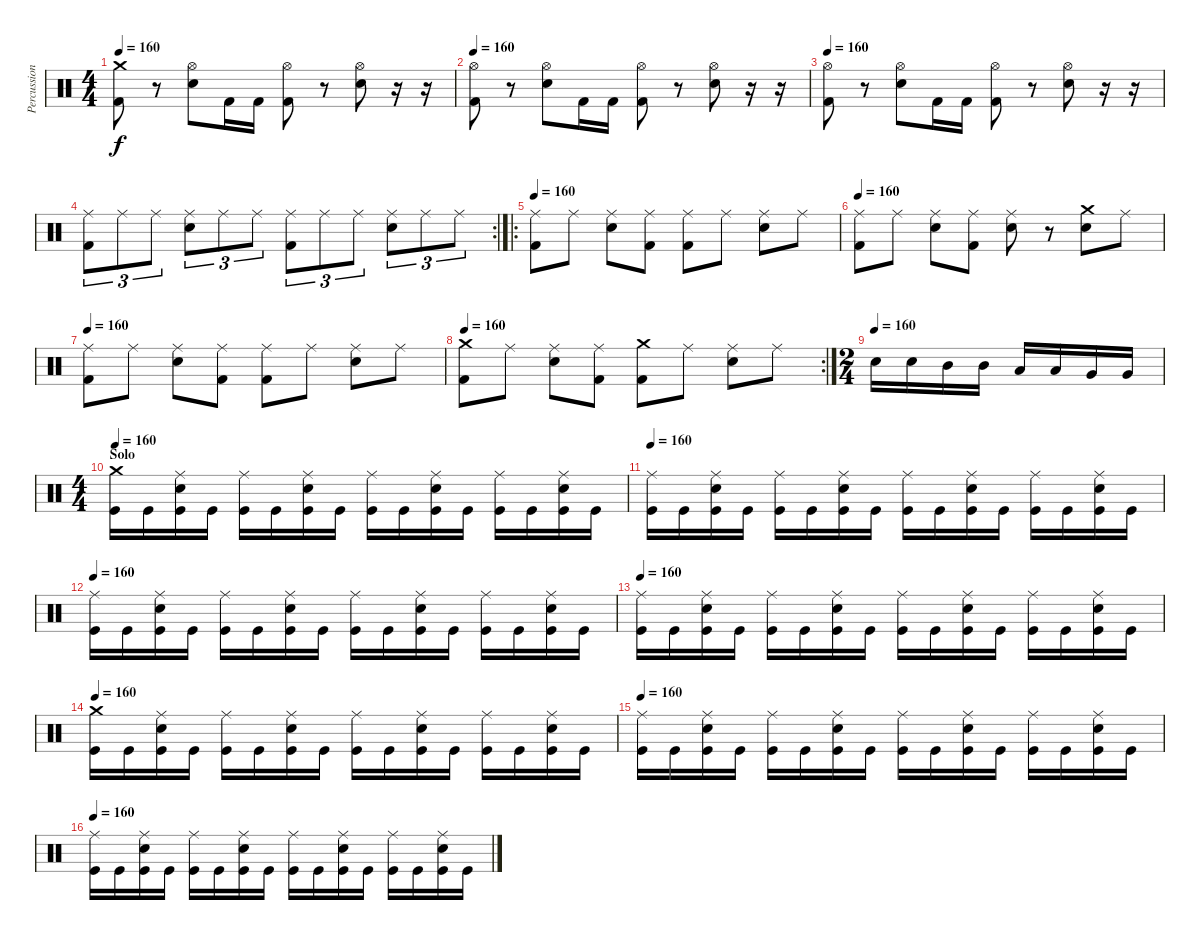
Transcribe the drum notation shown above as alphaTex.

\track ("Percussions" "Percussion") {instrument percussion}
\staff {score}
\articulation defaults
\ts (4 4)
\tempo 160
\clef neutral
\ks c
("Kick (hit) 2" "Crash medium (hit)").8{dy f} r.8 ("Electric Snare (hit)" "Hi-Hat (open)").8 "Kick (hit) 2".16 "Kick (hit) 2".16 ("Kick (hit) 2" "Hi-Hat (open)").8 r.8 ("Electric Snare (hit)" "Hi-Hat (open)").8 r.16 r.16 |
\tempo 160
("Kick (hit) 2" "Hi-Hat (open)").8 r.8 ("Electric Snare (hit)" "Hi-Hat (open)").8 "Kick (hit) 2".16 "Kick (hit) 2".16 ("Kick (hit) 2" "Hi-Hat (open)").8 r.8 ("Electric Snare (hit)" "Hi-Hat (open)").8 r.16 r.16 |
\tempo 160
("Kick (hit) 2" "Hi-Hat (open)").8 r.8 ("Electric Snare (hit)" "Hi-Hat (open)").8 "Kick (hit) 2".16 "Kick (hit) 2".16 ("Kick (hit) 2" "Hi-Hat (open)").8 r.8 ("Electric Snare (hit)" "Hi-Hat (open)").8 r.16 r.16 |
\rc 2
("Kick (hit) 2" "Ride (middle)").8{tu (3 2)} "Ride (middle)".8{tu (3 2)} "Ride (middle)".8{tu (3 2)} ("Electric Snare (hit)" "Ride (middle)").8{tu (3 2)} "Ride (middle)".8{tu (3 2)} "Ride (middle)".8{tu (3 2)} ("Kick (hit) 2" "Ride (middle)").8{tu (3 2)} "Ride (middle)".8{tu (3 2)} "Ride (middle)".8{tu (3 2)} ("Electric Snare (hit)" "Ride (middle)").8{tu (3 2)} "Ride (middle)".8{tu (3 2)} "Ride (middle)".8{tu (3 2)} |
\ro
\tempo 160
("Ride (middle)" "Kick (hit) 2").8 "Ride (middle)".8 ("Ride (middle)" "Electric Snare (hit)").8 ("Ride (middle)" "Kick (hit) 2").8 ("Ride (middle)" "Kick (hit) 2").8 "Ride (middle)".8 ("Ride (middle)" "Electric Snare (hit)").8 "Ride (middle)".8 |
\tempo 160
("Ride (middle)" "Kick (hit) 2").8 "Ride (middle)".8 ("Ride (middle)" "Electric Snare (hit)").8 ("Ride (middle)" "Kick (hit) 2").8 ("Ride (middle)" "Electric Snare (hit)").8 r.8 ("Crash medium (hit)" "Electric Snare (hit)").8 "Ride (middle)".8 |
\tempo 160
("Ride (middle)" "Kick (hit) 2").8 "Ride (middle)".8 ("Ride (middle)" "Electric Snare (hit)").8 ("Ride (middle)" "Kick (hit) 2").8 ("Ride (middle)" "Kick (hit) 2").8 "Ride (middle)".8 ("Ride (middle)" "Electric Snare (hit)").8 "Ride (middle)".8 |
\rc 2
\tempo 160
("Crash medium (hit)" "Kick (hit) 2").8 "Ride (middle)".8 ("Ride (middle)" "Electric Snare (hit)").8 ("Ride (middle)" "Kick (hit) 2").8 ("Crash medium (hit)" "Kick (hit) 2").8 "Ride (middle)".8 ("Ride (middle)" "Electric Snare (hit)").8 "Ride (middle)".8 |
\ts (2 4)
\tempo (160)
"Snare (hit) 2".16 "Snare (hit) 2".16 "Mid Tom (hit)".16 "Mid Tom (hit)".16 "Low Tom (hit)".16 "Low Tom (hit)".16 "Very Low Tom (hit)".16 "Very Low Tom (hit)".16 |
\ts (4 4)
\section ("" "Solo")
\tempo 160
("Kick (hit)" "Crash medium (hit)").16 "Kick (hit)".16 ("Kick (hit)" "Ride (middle)" "Snare (hit) 2").16 "Kick (hit)".16 ("Kick (hit)" "Ride (middle)").16 "Kick (hit)".16 ("Kick (hit)" "Ride (middle)" "Snare (hit) 2").16 "Kick (hit)".16 ("Kick (hit)" "Ride (middle)").16 "Kick (hit)".16 ("Kick (hit)" "Ride (middle)" "Snare (hit) 2").16 "Kick (hit)".16 ("Kick (hit)" "Ride (middle)").16 "Kick (hit)".16 ("Kick (hit)" "Ride (middle)" "Snare (hit) 2").16 "Kick (hit)".16 |
\tempo 160
("Kick (hit)" "Ride (middle)").16 "Kick (hit)".16 ("Kick (hit)" "Ride (middle)" "Snare (hit) 2").16 "Kick (hit)".16 ("Kick (hit)" "Ride (middle)").16 "Kick (hit)".16 ("Kick (hit)" "Ride (middle)" "Snare (hit) 2").16 "Kick (hit)".16 ("Kick (hit)" "Ride (middle)").16 "Kick (hit)".16 ("Kick (hit)" "Ride (middle)" "Snare (hit) 2").16 "Kick (hit)".16 ("Kick (hit)" "Ride (middle)").16 "Kick (hit)".16 ("Kick (hit)" "Ride (middle)" "Snare (hit) 2").16 "Kick (hit)".16 |
\tempo 160
("Kick (hit)" "Ride (middle)").16 "Kick (hit)".16 ("Kick (hit)" "Ride (middle)" "Snare (hit) 2").16 "Kick (hit)".16 ("Kick (hit)" "Ride (middle)").16 "Kick (hit)".16 ("Kick (hit)" "Ride (middle)" "Snare (hit) 2").16 "Kick (hit)".16 ("Kick (hit)" "Ride (middle)").16 "Kick (hit)".16 ("Kick (hit)" "Ride (middle)" "Snare (hit) 2").16 "Kick (hit)".16 ("Kick (hit)" "Ride (middle)").16 "Kick (hit)".16 ("Kick (hit)" "Ride (middle)" "Snare (hit) 2").16 "Kick (hit)".16 |
\tempo 160
("Kick (hit)" "Ride (middle)").16 "Kick (hit)".16 ("Kick (hit)" "Ride (middle)" "Snare (hit) 2").16 "Kick (hit)".16 ("Kick (hit)" "Ride (middle)").16 "Kick (hit)".16 ("Kick (hit)" "Ride (middle)" "Snare (hit) 2").16 "Kick (hit)".16 ("Kick (hit)" "Ride (middle)").16 "Kick (hit)".16 ("Kick (hit)" "Ride (middle)" "Snare (hit) 2").16 "Kick (hit)".16 ("Kick (hit)" "Ride (middle)").16 "Kick (hit)".16 ("Kick (hit)" "Ride (middle)" "Snare (hit) 2").16 "Kick (hit)".16 |
\tempo 160
("Kick (hit)" "Crash medium (hit)").16 "Kick (hit)".16 ("Kick (hit)" "Ride (middle)" "Snare (hit) 2").16 "Kick (hit)".16 ("Kick (hit)" "Ride (middle)").16 "Kick (hit)".16 ("Kick (hit)" "Ride (middle)" "Snare (hit) 2").16 "Kick (hit)".16 ("Kick (hit)" "Ride (middle)").16 "Kick (hit)".16 ("Kick (hit)" "Ride (middle)" "Snare (hit) 2").16 "Kick (hit)".16 ("Kick (hit)" "Ride (middle)").16 "Kick (hit)".16 ("Kick (hit)" "Ride (middle)" "Snare (hit) 2").16 "Kick (hit)".16 |
\tempo 160
("Kick (hit)" "Ride (middle)").16 "Kick (hit)".16 ("Kick (hit)" "Ride (middle)" "Snare (hit) 2").16 "Kick (hit)".16 ("Kick (hit)" "Ride (middle)").16 "Kick (hit)".16 ("Kick (hit)" "Ride (middle)" "Snare (hit) 2").16 "Kick (hit)".16 ("Kick (hit)" "Ride (middle)").16 "Kick (hit)".16 ("Kick (hit)" "Ride (middle)" "Snare (hit) 2").16 "Kick (hit)".16 ("Kick (hit)" "Ride (middle)").16 "Kick (hit)".16 ("Kick (hit)" "Ride (middle)" "Snare (hit) 2").16 "Kick (hit)".16 |
\tempo 160
("Kick (hit)" "Ride (middle)").16 "Kick (hit)".16 ("Kick (hit)" "Ride (middle)" "Snare (hit) 2").16 "Kick (hit)".16 ("Kick (hit)" "Ride (middle)").16 "Kick (hit)".16 ("Kick (hit)" "Ride (middle)" "Snare (hit) 2").16 "Kick (hit)".16 ("Kick (hit)" "Ride (middle)").16 "Kick (hit)".16 ("Kick (hit)" "Ride (middle)" "Snare (hit) 2").16 "Kick (hit)".16 ("Kick (hit)" "Ride (middle)").16 "Kick (hit)".16 ("Kick (hit)" "Ride (middle)" "Snare (hit) 2").16 "Kick (hit)".16
